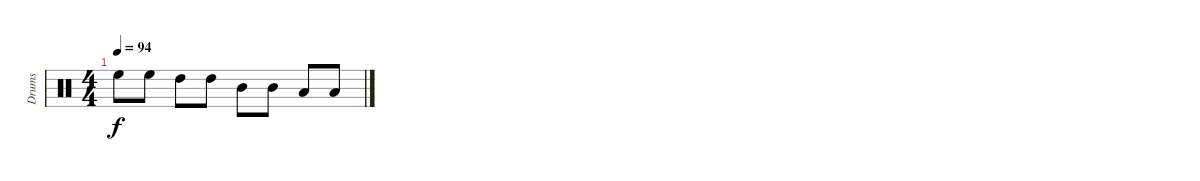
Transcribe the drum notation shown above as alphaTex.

\track ("Drums" "Drums") {instrument percussion}
\staff {score}
\articulation defaults
\ts (4 4)
\tempo 94
\clef neutral
\ks c "High Floor Tom (hit)".8{dy f} "High Floor Tom (hit)".8 "High Tom (hit)".8 "High Tom (hit)".8 "Mid Tom (hit)".8 "Mid Tom (hit)".8 "Low Tom (hit)".8 "Low Tom (hit)".8
